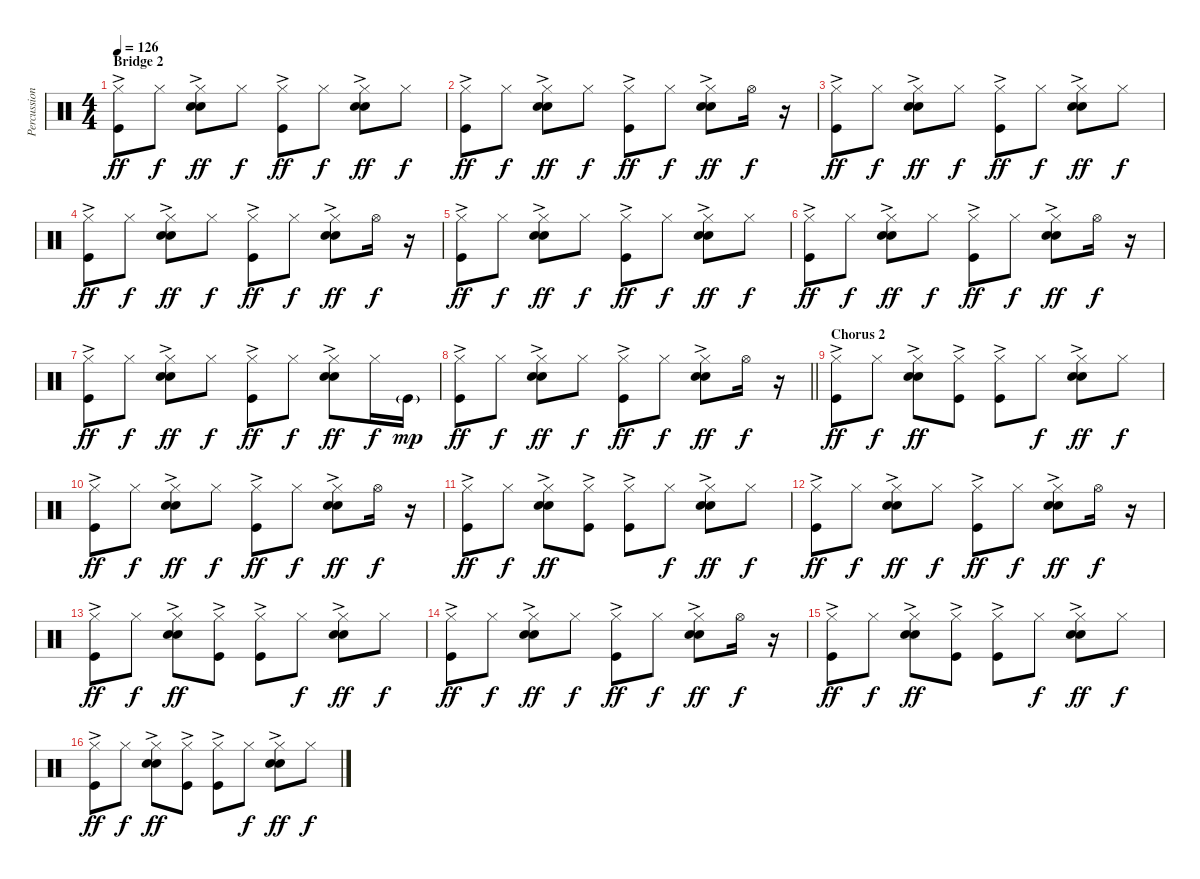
\track ("Percussion" "Percussion") {instrument percussion}
\staff {score}
\articulation defaults
\ts (4 4)
\section ("" "Bridge 2")
\tempo 126
\clef neutral
\ks c
("Hi-Hat (closed)" "Kick (hit)"{ac}).8{dy ff} "Hi-Hat (closed)".8{dy f} ("Hi-Hat (closed)" "Hand Clap (hit)"{ac} "Snare (hit) 2").8{dy ff} "Hi-Hat (closed)".8{dy f} ("Hi-Hat (closed)" "Kick (hit)"{ac}).8{dy ff} "Hi-Hat (closed)".8{dy f} ("Hi-Hat (closed)" "Hand Clap (hit)"{ac} "Snare (hit) 2").8{dy ff} "Hi-Hat (closed)".8{dy f} |
("Hi-Hat (closed)" "Kick (hit)"{ac}).8{dy ff} "Hi-Hat (closed)".8{dy f} ("Hi-Hat (closed)" "Hand Clap (hit)"{ac} "Snare (hit) 2").8{dy ff} "Hi-Hat (closed)".8{dy f} ("Hi-Hat (closed)" "Kick (hit)"{ac}).8{dy ff} "Hi-Hat (closed)".8{dy f} ("Hi-Hat (closed)" "Hand Clap (hit)"{ac} "Snare (hit) 2").8{dy ff} "Hi-Hat (open)".16{dy f} r.16 |
("Hi-Hat (closed)" "Kick (hit)"{ac}).8{dy ff} "Hi-Hat (closed)".8{dy f} ("Hi-Hat (closed)" "Hand Clap (hit)"{ac} "Snare (hit) 2").8{dy ff} "Hi-Hat (closed)".8{dy f} ("Hi-Hat (closed)" "Kick (hit)"{ac}).8{dy ff} "Hi-Hat (closed)".8{dy f} ("Hi-Hat (closed)" "Hand Clap (hit)"{ac} "Snare (hit) 2").8{dy ff} "Hi-Hat (closed)".8{dy f} |
("Hi-Hat (closed)" "Kick (hit)"{ac}).8{dy ff} "Hi-Hat (closed)".8{dy f} ("Hi-Hat (closed)" "Hand Clap (hit)"{ac} "Snare (hit) 2").8{dy ff} "Hi-Hat (closed)".8{dy f} ("Hi-Hat (closed)" "Kick (hit)"{ac}).8{dy ff} "Hi-Hat (closed)".8{dy f} ("Hi-Hat (closed)" "Hand Clap (hit)"{ac} "Snare (hit) 2").8{dy ff} "Hi-Hat (open)".16{dy f} r.16 |
("Hi-Hat (closed)" "Kick (hit)"{ac}).8{dy ff} "Hi-Hat (closed)".8{dy f} ("Hi-Hat (closed)" "Hand Clap (hit)"{ac} "Snare (hit) 2").8{dy ff} "Hi-Hat (closed)".8{dy f} ("Hi-Hat (closed)" "Kick (hit)"{ac}).8{dy ff} "Hi-Hat (closed)".8{dy f} ("Hi-Hat (closed)" "Hand Clap (hit)"{ac} "Snare (hit) 2").8{dy ff} "Hi-Hat (closed)".8{dy f} |
("Hi-Hat (closed)" "Kick (hit)"{ac}).8{dy ff} "Hi-Hat (closed)".8{dy f} ("Hi-Hat (closed)" "Hand Clap (hit)"{ac} "Snare (hit) 2").8{dy ff} "Hi-Hat (closed)".8{dy f} ("Hi-Hat (closed)" "Kick (hit)"{ac}).8{dy ff} "Hi-Hat (closed)".8{dy f} ("Hi-Hat (closed)" "Hand Clap (hit)"{ac} "Snare (hit) 2").8{dy ff} "Hi-Hat (open)".16{dy f} r.16 |
("Hi-Hat (closed)" "Kick (hit)"{ac}).8{dy ff} "Hi-Hat (closed)".8{dy f} ("Hi-Hat (closed)" "Hand Clap (hit)"{ac} "Snare (hit) 2").8{dy ff} "Hi-Hat (closed)".8{dy f} ("Hi-Hat (closed)" "Kick (hit)"{ac}).8{dy ff} "Hi-Hat (closed)".8{dy f} ("Hi-Hat (closed)" "Hand Clap (hit)"{ac} "Snare (hit) 2").8{dy ff} "Hi-Hat (closed)".16{dy f} "Kick (hit)"{g}.16{dy mp} |
\barLineRight lightlight
("Hi-Hat (closed)" "Kick (hit)"{ac}).8{dy ff} "Hi-Hat (closed)".8{dy f} ("Hi-Hat (closed)" "Hand Clap (hit)"{ac} "Snare (hit) 2").8{dy ff} "Hi-Hat (closed)".8{dy f} ("Hi-Hat (closed)" "Kick (hit)"{ac}).8{dy ff} "Hi-Hat (closed)".8{dy f} ("Hi-Hat (closed)" "Hand Clap (hit)"{ac} "Snare (hit) 2").8{dy ff} "Hi-Hat (open)".16{dy f} r.16 |
\section ("" "Chorus 2")
("Hi-Hat (closed)" "Kick (hit)"{ac}).8{dy ff} "Hi-Hat (closed)".8{dy f} ("Hi-Hat (closed)" "Hand Clap (hit)"{ac} "Snare (hit) 2"{ac}).8{dy ff} ("Hi-Hat (closed)" "Kick (hit)"{ac}).8 ("Hi-Hat (closed)" "Kick (hit)"{ac}).8 "Hi-Hat (closed)".8{dy f} ("Hi-Hat (closed)" "Hand Clap (hit)"{ac} "Snare (hit) 2"{ac}).8{dy ff} "Hi-Hat (closed)".8{dy f} |
("Hi-Hat (closed)" "Kick (hit)"{ac}).8{dy ff} "Hi-Hat (closed)".8{dy f} ("Hi-Hat (closed)" "Hand Clap (hit)"{ac} "Snare (hit) 2"{ac}).8{dy ff} "Hi-Hat (closed)".8{dy f} ("Hi-Hat (closed)" "Kick (hit)"{ac}).8{dy ff} "Hi-Hat (closed)".8{dy f} ("Hi-Hat (closed)" "Hand Clap (hit)"{ac} "Snare (hit) 2"{ac}).8{dy ff} "Hi-Hat (open)".16{dy f} r.16 |
("Hi-Hat (closed)" "Kick (hit)"{ac}).8{dy ff} "Hi-Hat (closed)".8{dy f} ("Hi-Hat (closed)" "Hand Clap (hit)"{ac} "Snare (hit) 2"{ac}).8{dy ff} ("Hi-Hat (closed)" "Kick (hit)"{ac}).8 ("Hi-Hat (closed)" "Kick (hit)"{ac}).8 "Hi-Hat (closed)".8{dy f} ("Hi-Hat (closed)" "Hand Clap (hit)"{ac} "Snare (hit) 2"{ac}).8{dy ff} "Hi-Hat (closed)".8{dy f} |
("Hi-Hat (closed)" "Kick (hit)"{ac}).8{dy ff} "Hi-Hat (closed)".8{dy f} ("Hi-Hat (closed)" "Hand Clap (hit)"{ac} "Snare (hit) 2"{ac}).8{dy ff} "Hi-Hat (closed)".8{dy f} ("Hi-Hat (closed)" "Kick (hit)"{ac}).8{dy ff} "Hi-Hat (closed)".8{dy f} ("Hi-Hat (closed)" "Hand Clap (hit)"{ac} "Snare (hit) 2"{ac}).8{dy ff} "Hi-Hat (open)".16{dy f} r.16 |
("Hi-Hat (closed)" "Kick (hit)"{ac}).8{dy ff} "Hi-Hat (closed)".8{dy f} ("Hi-Hat (closed)" "Hand Clap (hit)"{ac} "Snare (hit) 2"{ac}).8{dy ff} ("Hi-Hat (closed)" "Kick (hit)"{ac}).8 ("Hi-Hat (closed)" "Kick (hit)"{ac}).8 "Hi-Hat (closed)".8{dy f} ("Hi-Hat (closed)" "Hand Clap (hit)"{ac} "Snare (hit) 2"{ac}).8{dy ff} "Hi-Hat (closed)".8{dy f} |
("Hi-Hat (closed)" "Kick (hit)"{ac}).8{dy ff} "Hi-Hat (closed)".8{dy f} ("Hi-Hat (closed)" "Hand Clap (hit)"{ac} "Snare (hit) 2"{ac}).8{dy ff} "Hi-Hat (closed)".8{dy f} ("Hi-Hat (closed)" "Kick (hit)"{ac}).8{dy ff} "Hi-Hat (closed)".8{dy f} ("Hi-Hat (closed)" "Hand Clap (hit)"{ac} "Snare (hit) 2"{ac}).8{dy ff} "Hi-Hat (open)".16{dy f} r.16 |
("Hi-Hat (closed)" "Kick (hit)"{ac}).8{dy ff} "Hi-Hat (closed)".8{dy f} ("Hi-Hat (closed)" "Hand Clap (hit)"{ac} "Snare (hit) 2"{ac}).8{dy ff} ("Hi-Hat (closed)" "Kick (hit)"{ac}).8 ("Hi-Hat (closed)" "Kick (hit)"{ac}).8 "Hi-Hat (closed)".8{dy f} ("Hi-Hat (closed)" "Hand Clap (hit)"{ac} "Snare (hit) 2"{ac}).8{dy ff} "Hi-Hat (closed)".8{dy f} |
("Hi-Hat (closed)" "Kick (hit)"{ac}).8{dy ff} "Hi-Hat (closed)".8{dy f} ("Hi-Hat (closed)" "Hand Clap (hit)"{ac} "Snare (hit) 2"{ac}).8{dy ff} ("Hi-Hat (closed)" "Kick (hit)"{ac}).8 ("Hi-Hat (closed)" "Kick (hit)"{ac}).8 "Hi-Hat (closed)".8{dy f} ("Hi-Hat (closed)" "Hand Clap (hit)"{ac} "Snare (hit) 2"{ac}).8{dy ff} "Hi-Hat (closed)".8{dy f}
